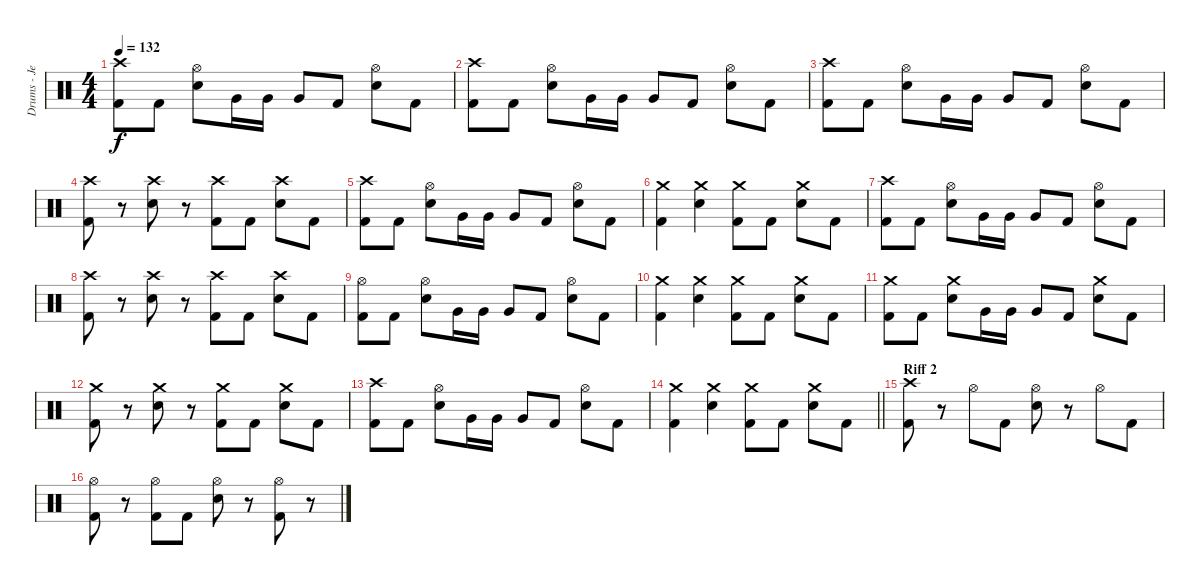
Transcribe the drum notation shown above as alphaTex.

\track ("Drums - Jess Margera" "Drums - Je") {instrument percussion}
\staff {score}
\articulation defaults
\ts (4 4)
\tempo 132
\clef neutral
\ks c
("Crash high (hit)" "Kick (hit) 2").8{dy f} "Kick (hit) 2".8 ("Hi-Hat (open)" "Electric Snare (hit)").8 "Very Low Tom (hit)".16 "Very Low Tom (hit)".16 "Very Low Tom (hit)".8 "Kick (hit) 2".8 ("Hi-Hat (open)" "Electric Snare (hit)").8 "Kick (hit) 2".8 |
("Crash high (hit)" "Kick (hit) 2").8 "Kick (hit) 2".8 ("Hi-Hat (open)" "Electric Snare (hit)").8 "Very Low Tom (hit)".16 "Very Low Tom (hit)".16 "Very Low Tom (hit)".8 "Kick (hit) 2".8 ("Hi-Hat (open)" "Electric Snare (hit)").8 "Kick (hit) 2".8 |
("Crash high (hit)" "Kick (hit) 2").8 "Kick (hit) 2".8 ("Hi-Hat (open)" "Electric Snare (hit)").8 "Very Low Tom (hit)".16 "Very Low Tom (hit)".16 "Very Low Tom (hit)".8 "Kick (hit) 2".8 ("Hi-Hat (open)" "Electric Snare (hit)").8 "Kick (hit) 2".8 |
("Crash high (hit)" "Kick (hit) 2").8 r.8 ("Crash high (hit)" "Electric Snare (hit)").8 r.8 ("Crash high (hit)" "Kick (hit) 2").8 "Kick (hit) 2".8 ("Crash high (hit)" "Electric Snare (hit)").8 "Kick (hit) 2".8 |
("Crash high (hit)" "Kick (hit) 2").8 "Kick (hit) 2".8 ("Hi-Hat (open)" "Electric Snare (hit)").8 "Very Low Tom (hit)".16 "Very Low Tom (hit)".16 "Very Low Tom (hit)".8 "Kick (hit) 2".8 ("Hi-Hat (open)" "Electric Snare (hit)").8 "Kick (hit) 2".8 |
("Crash medium (hit)" "Kick (hit) 2").4 ("Crash medium (hit)" "Electric Snare (hit)").4 ("Crash medium (hit)" "Kick (hit) 2").8 "Kick (hit) 2".8 ("Crash medium (hit)" "Electric Snare (hit)").8 "Kick (hit) 2".8 |
("Crash high (hit)" "Kick (hit) 2").8 "Kick (hit) 2".8 ("Hi-Hat (open)" "Electric Snare (hit)").8 "Very Low Tom (hit)".16 "Very Low Tom (hit)".16 "Very Low Tom (hit)".8 "Kick (hit) 2".8 ("Hi-Hat (open)" "Electric Snare (hit)").8 "Kick (hit) 2".8 |
("Crash high (hit)" "Kick (hit) 2").8 r.8 ("Crash high (hit)" "Electric Snare (hit)").8 r.8 ("Crash high (hit)" "Kick (hit) 2").8 "Kick (hit) 2".8 ("Crash high (hit)" "Electric Snare (hit)").8 "Kick (hit) 2".8 |
("Hi-Hat (open)" "Kick (hit) 2").8 "Kick (hit) 2".8 ("Hi-Hat (open)" "Electric Snare (hit)").8 "Very Low Tom (hit)".16 "Very Low Tom (hit)".16 "Very Low Tom (hit)".8 "Kick (hit) 2".8 ("Hi-Hat (open)" "Electric Snare (hit)").8 "Kick (hit) 2".8 |
("Crash medium (hit)" "Kick (hit) 2").4 ("Crash medium (hit)" "Electric Snare (hit)").4 ("Crash medium (hit)" "Kick (hit) 2").8 "Kick (hit) 2".8 ("Crash medium (hit)" "Electric Snare (hit)").8 "Kick (hit) 2".8 |
("Crash medium (hit)" "Kick (hit) 2").8 "Kick (hit) 2".8 ("Crash medium (hit)" "Electric Snare (hit)").8 "Very Low Tom (hit)".16 "Very Low Tom (hit)".16 "Very Low Tom (hit)".8 "Kick (hit) 2".8 ("Crash medium (hit)" "Electric Snare (hit)").8 "Kick (hit) 2".8 |
("Crash medium (hit)" "Kick (hit) 2").8 r.8 ("Crash medium (hit)" "Electric Snare (hit)").8 r.8 ("Crash medium (hit)" "Kick (hit) 2").8 "Kick (hit) 2".8 ("Crash medium (hit)" "Electric Snare (hit)").8 "Kick (hit) 2".8 |
("Crash high (hit)" "Kick (hit) 2").8 "Kick (hit) 2".8 ("Hi-Hat (open)" "Electric Snare (hit)").8 "Very Low Tom (hit)".16 "Very Low Tom (hit)".16 "Very Low Tom (hit)".8 "Kick (hit) 2".8 ("Hi-Hat (open)" "Electric Snare (hit)").8 "Kick (hit) 2".8 |
\barLineRight lightlight
("Crash medium (hit)" "Kick (hit) 2").4 ("Crash medium (hit)" "Electric Snare (hit)").4 ("Crash medium (hit)" "Kick (hit) 2").8 "Kick (hit) 2".8 ("Crash medium (hit)" "Electric Snare (hit)").8 "Kick (hit) 2".8 |
\section ("" "Riff 2")
("Crash high (hit)" "Kick (hit) 2").8 r.8 "Hi-Hat (open)".8 "Kick (hit) 2".8 ("Hi-Hat (open)" "Electric Snare (hit)").8 r.8 "Hi-Hat (open)".8 "Kick (hit) 2".8 |
("Hi-Hat (open)" "Kick (hit) 2").8 r.8 ("Hi-Hat (open)" "Kick (hit) 2").8 "Kick (hit) 2".8 ("Hi-Hat (open)" "Electric Snare (hit)").8 r.8 ("Hi-Hat (open)" "Kick (hit) 2").8 r.8
